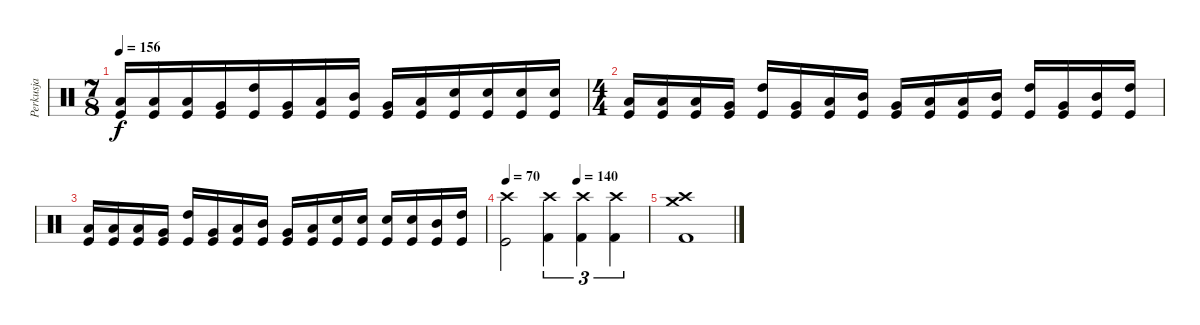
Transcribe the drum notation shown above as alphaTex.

\track ("Perkusja" "Perkusja") {instrument percussion}
\staff {score}
\articulation defaults
\ts (7 8)
\tempo 156
\clef neutral
\ks c
("Low Floor Tom (hit)" "Kick (hit)").16{dy f} ("Low Tom (hit)" "Kick (hit)").16 ("Low Floor Tom (hit)" "Kick (hit)").16 ("Very Low Tom (hit)" "Kick (hit)").16 ("High Tom (hit)" "Kick (hit)").16 ("Very Low Tom (hit)" "Kick (hit)").16 ("Low Tom (hit)" "Kick (hit)").16 ("Mid Tom (hit)" "Kick (hit)").16 ("Very Low Tom (hit)" "Kick (hit)").16 ("Low Floor Tom (hit)" "Kick (hit)").16 ("Snare (hit) 2" "Kick (hit)").16 ("Snare (hit) 2" "Kick (hit)").16 ("Snare (hit) 2" "Kick (hit)").16 ("Snare (hit) 2" "Kick (hit)").16 |
\ts (4 4)
("Low Floor Tom (hit)" "Kick (hit)").16 ("Low Tom (hit)" "Kick (hit)").16 ("Low Floor Tom (hit)" "Kick (hit)").16 ("Very Low Tom (hit)" "Kick (hit)").16 ("High Tom (hit)" "Kick (hit)").16 ("Very Low Tom (hit)" "Kick (hit)").16 ("Low Tom (hit)" "Kick (hit)").16 ("Mid Tom (hit)" "Kick (hit)").16 ("Very Low Tom (hit)" "Kick (hit)").16 ("Low Floor Tom (hit)" "Kick (hit)").16 ("Low Tom (hit)" "Kick (hit)").16 ("Mid Tom (hit)" "Kick (hit)").16 ("High Tom (hit)" "Kick (hit)").16 ("Very Low Tom (hit)" "Kick (hit)").16 ("Mid Tom (hit)" "Kick (hit)").16 ("High Tom (hit)" "Kick (hit)").16 |
("Low Floor Tom (hit)" "Kick (hit)").16 ("Low Tom (hit)" "Kick (hit)").16 ("Low Floor Tom (hit)" "Kick (hit)").16 ("Very Low Tom (hit)" "Kick (hit)").16 ("High Tom (hit)" "Kick (hit)").16 ("Very Low Tom (hit)" "Kick (hit)").16 ("Low Tom (hit)" "Kick (hit)").16 ("Mid Tom (hit)" "Kick (hit)").16 ("Very Low Tom (hit)" "Kick (hit)").16 ("Low Floor Tom (hit)" "Kick (hit)").16 ("Snare (hit) 2" "Kick (hit)").16 ("Snare (hit) 2" "Kick (hit)").16 ("Snare (hit) 2" "Kick (hit)").16 ("Snare (hit) 2" "Kick (hit)").16 ("Mid Tom (hit)" "Kick (hit)").16 ("High Tom (hit)" "Kick (hit)").16 |
\tempo 70
\tempo (140 0.5)
("Crash high (hit)" "Kick (hit)").2 ("Crash high (hit)" "Kick (hit) 2").4{tu (3 2)} ("Crash high (hit)" "Kick (hit) 2").4{tu (3 2)} ("Crash high (hit)" "Kick (hit) 2").4{tu (3 2)} |
("Crash high (hit)" "Kick (hit) 2" "Crash medium (hit)").1
